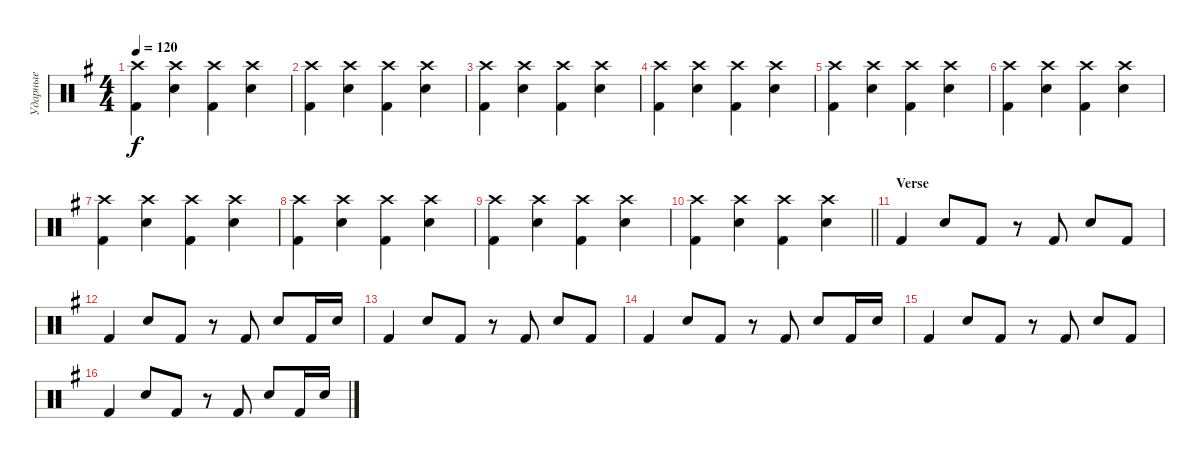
\track ("Ударные" "Ударные") {instrument percussion}
\staff {score}
\articulation defaults
\ts (4 4)
\tempo 120
\clef neutral
\ks g
("Kick (hit) 2" "Crash high (hit)").4{dy f} ("Snare (hit) 2" "Crash high (hit)").4 ("Kick (hit) 2" "Crash high (hit)").4 ("Snare (hit) 2" "Crash high (hit)").4 |
("Kick (hit) 2" "Crash high (hit)").4 ("Snare (hit) 2" "Crash high (hit)").4 ("Kick (hit) 2" "Crash high (hit)").4 ("Snare (hit) 2" "Crash high (hit)").4 |
("Kick (hit) 2" "Crash high (hit)").4 ("Snare (hit) 2" "Crash high (hit)").4 ("Kick (hit) 2" "Crash high (hit)").4 ("Snare (hit) 2" "Crash high (hit)").4 |
("Kick (hit) 2" "Crash high (hit)").4 ("Snare (hit) 2" "Crash high (hit)").4 ("Kick (hit) 2" "Crash high (hit)").4 ("Snare (hit) 2" "Crash high (hit)").4 |
("Kick (hit) 2" "Crash high (hit)").4 ("Snare (hit) 2" "Crash high (hit)").4 ("Kick (hit) 2" "Crash high (hit)").4 ("Snare (hit) 2" "Crash high (hit)").4 |
("Kick (hit) 2" "Crash high (hit)").4 ("Snare (hit) 2" "Crash high (hit)").4 ("Kick (hit) 2" "Crash high (hit)").4 ("Snare (hit) 2" "Crash high (hit)").4 |
("Kick (hit) 2" "Crash high (hit)").4 ("Snare (hit) 2" "Crash high (hit)").4 ("Kick (hit) 2" "Crash high (hit)").4 ("Snare (hit) 2" "Crash high (hit)").4 |
("Kick (hit) 2" "Crash high (hit)").4 ("Snare (hit) 2" "Crash high (hit)").4 ("Kick (hit) 2" "Crash high (hit)").4 ("Snare (hit) 2" "Crash high (hit)").4 |
("Kick (hit) 2" "Crash high (hit)").4 ("Snare (hit) 2" "Crash high (hit)").4 ("Kick (hit) 2" "Crash high (hit)").4 ("Snare (hit) 2" "Crash high (hit)").4 |
\barLineRight lightlight
("Kick (hit) 2" "Crash high (hit)").4 ("Snare (hit) 2" "Crash high (hit)").4 ("Kick (hit) 2" "Crash high (hit)").4 ("Snare (hit) 2" "Crash high (hit)").4 |
\section ("" "Verse")
"Kick (hit) 2".4 "Snare (hit) 2".8 "Kick (hit) 2".8 r.8 "Kick (hit) 2".8 "Snare (hit) 2".8 "Kick (hit) 2".8 |
"Kick (hit) 2".4 "Snare (hit) 2".8 "Kick (hit) 2".8 r.8 "Kick (hit) 2".8 "Snare (hit) 2".8 "Kick (hit) 2".16 "Snare (hit) 2".16 |
"Kick (hit) 2".4 "Snare (hit) 2".8 "Kick (hit) 2".8 r.8 "Kick (hit) 2".8 "Snare (hit) 2".8 "Kick (hit) 2".8 |
"Kick (hit) 2".4 "Snare (hit) 2".8 "Kick (hit) 2".8 r.8 "Kick (hit) 2".8 "Snare (hit) 2".8 "Kick (hit) 2".16 "Snare (hit) 2".16 |
"Kick (hit) 2".4 "Snare (hit) 2".8 "Kick (hit) 2".8 r.8 "Kick (hit) 2".8 "Snare (hit) 2".8 "Kick (hit) 2".8 |
"Kick (hit) 2".4 "Snare (hit) 2".8 "Kick (hit) 2".8 r.8 "Kick (hit) 2".8 "Snare (hit) 2".8 "Kick (hit) 2".16 "Snare (hit) 2".16
